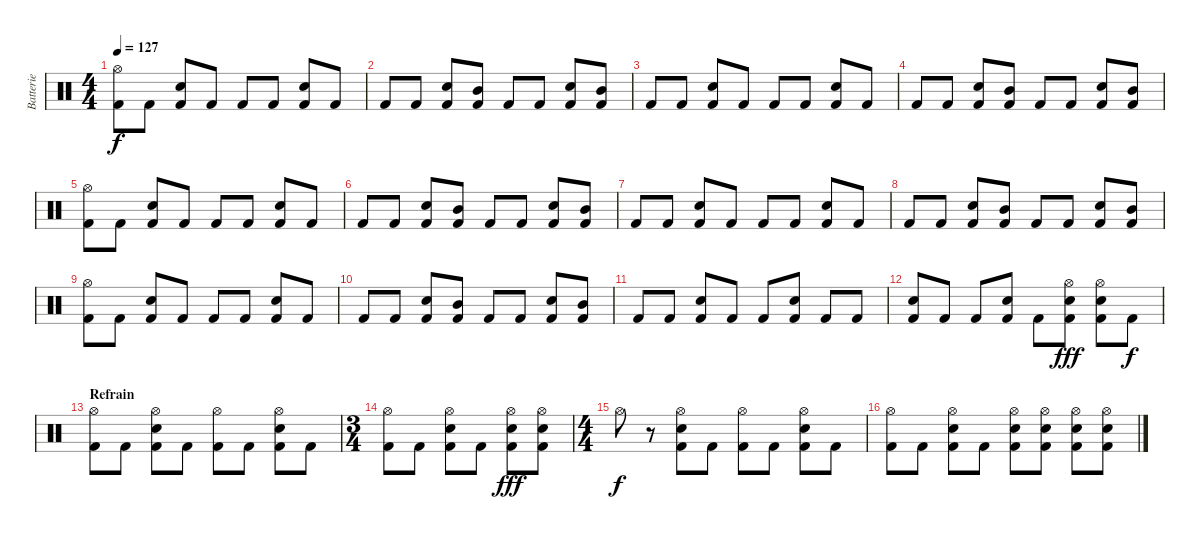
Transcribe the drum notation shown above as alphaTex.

\track ("Batterie" "Batterie") {instrument percussion}
\staff {score}
\articulation defaults
\ts (4 4)
\tempo 127
\clef neutral
\ks c
("Hi-Hat (open)" "Kick (hit) 2").8{dy f} "Kick (hit) 2".8 ("Electric Snare (hit)" "Kick (hit) 2").8 "Kick (hit) 2".8 "Kick (hit) 2".8 "Kick (hit) 2".8 ("Electric Snare (hit)" "Kick (hit) 2").8 "Kick (hit) 2".8 |
"Kick (hit) 2".8 "Kick (hit) 2".8 ("Electric Snare (hit)" "Kick (hit) 2").8 ("Mid Tom (hit)" "Kick (hit) 2").8 "Kick (hit) 2".8 "Kick (hit) 2".8 ("Electric Snare (hit)" "Kick (hit) 2").8 ("Mid Tom (hit)" "Kick (hit) 2").8 |
"Kick (hit) 2".8 "Kick (hit) 2".8 ("Electric Snare (hit)" "Kick (hit) 2").8 "Kick (hit) 2".8 "Kick (hit) 2".8 "Kick (hit) 2".8 ("Electric Snare (hit)" "Kick (hit) 2").8 "Kick (hit) 2".8 |
"Kick (hit) 2".8 "Kick (hit) 2".8 ("Electric Snare (hit)" "Kick (hit) 2").8 ("Mid Tom (hit)" "Kick (hit) 2").8 "Kick (hit) 2".8 "Kick (hit) 2".8 ("Electric Snare (hit)" "Kick (hit) 2").8 ("Mid Tom (hit)" "Kick (hit) 2").8 |
("Hi-Hat (open)" "Kick (hit) 2").8 "Kick (hit) 2".8 ("Electric Snare (hit)" "Kick (hit) 2").8 "Kick (hit) 2".8 "Kick (hit) 2".8 "Kick (hit) 2".8 ("Electric Snare (hit)" "Kick (hit) 2").8 "Kick (hit) 2".8 |
"Kick (hit) 2".8 "Kick (hit) 2".8 ("Electric Snare (hit)" "Kick (hit) 2").8 ("Mid Tom (hit)" "Kick (hit) 2").8 "Kick (hit) 2".8 "Kick (hit) 2".8 ("Electric Snare (hit)" "Kick (hit) 2").8 ("Mid Tom (hit)" "Kick (hit) 2").8 |
"Kick (hit) 2".8 "Kick (hit) 2".8 ("Electric Snare (hit)" "Kick (hit) 2").8 "Kick (hit) 2".8 "Kick (hit) 2".8 "Kick (hit) 2".8 ("Electric Snare (hit)" "Kick (hit) 2").8 "Kick (hit) 2".8 |
"Kick (hit) 2".8 "Kick (hit) 2".8 ("Electric Snare (hit)" "Kick (hit) 2").8 ("Mid Tom (hit)" "Kick (hit) 2").8 "Kick (hit) 2".8 "Kick (hit) 2".8 ("Electric Snare (hit)" "Kick (hit) 2").8 ("Mid Tom (hit)" "Kick (hit) 2").8 |
("Hi-Hat (open)" "Kick (hit) 2").8 "Kick (hit) 2".8 ("Electric Snare (hit)" "Kick (hit) 2").8 "Kick (hit) 2".8 "Kick (hit) 2".8 "Kick (hit) 2".8 ("Electric Snare (hit)" "Kick (hit) 2").8 "Kick (hit) 2".8 |
"Kick (hit) 2".8 "Kick (hit) 2".8 ("Electric Snare (hit)" "Kick (hit) 2").8 ("Mid Tom (hit)" "Kick (hit) 2").8 "Kick (hit) 2".8 "Kick (hit) 2".8 ("Electric Snare (hit)" "Kick (hit) 2").8 ("Mid Tom (hit)" "Kick (hit) 2").8 |
"Kick (hit) 2".8 "Kick (hit) 2".8 ("Electric Snare (hit)" "Kick (hit) 2").8 "Kick (hit) 2".8 "Kick (hit) 2".8 ("Electric Snare (hit)" "Kick (hit) 2").8 "Kick (hit) 2".8 "Kick (hit) 2".8 |
("Electric Snare (hit)" "Kick (hit) 2").8{volume 16} "Kick (hit) 2".8 "Kick (hit) 2".8 ("Electric Snare (hit)" "Kick (hit) 2").8 "Kick (hit) 2".8 ("Hi-Hat (open)" "Electric Snare (hit)" "Kick (hit) 2").8{dy fff} ("Hi-Hat (open)" "Electric Snare (hit)" "Kick (hit) 2").8 "Kick (hit) 2".8{dy f} |
\section ("" "Refrain")
("Hi-Hat (open)" "Kick (hit) 2").8 "Kick (hit) 2".8 ("Hi-Hat (open)" "Electric Snare (hit)" "Kick (hit) 2").8 "Kick (hit) 2".8 ("Hi-Hat (open)" "Kick (hit) 2").8 "Kick (hit) 2".8 ("Hi-Hat (open)" "Electric Snare (hit)" "Kick (hit) 2").8 "Kick (hit) 2".8 |
\ts (3 4)
("Hi-Hat (open)" "Kick (hit) 2").8 "Kick (hit) 2".8 ("Hi-Hat (open)" "Electric Snare (hit)" "Kick (hit) 2").8 "Kick (hit) 2".8 ("Hi-Hat (open)" "Electric Snare (hit)" "Kick (hit) 2").8{dy fff} ("Hi-Hat (open)" "Electric Snare (hit)" "Kick (hit) 2").8 |
\ts (4 4)
"Hi-Hat (open)".8{dy f} r.8 ("Hi-Hat (open)" "Electric Snare (hit)" "Kick (hit) 2").8 "Kick (hit) 2".8 ("Hi-Hat (open)" "Kick (hit) 2").8 "Kick (hit) 2".8 ("Hi-Hat (open)" "Electric Snare (hit)" "Kick (hit) 2").8 "Kick (hit) 2".8 |
("Hi-Hat (open)" "Kick (hit) 2").8 "Kick (hit) 2".8 ("Hi-Hat (open)" "Electric Snare (hit)" "Kick (hit) 2").8 "Kick (hit) 2".8 ("Hi-Hat (open)" "Electric Snare (hit)" "Kick (hit) 2").8 ("Hi-Hat (open)" "Electric Snare (hit)" "Kick (hit) 2").8 ("Hi-Hat (open)" "Electric Snare (hit)" "Kick (hit) 2").8 ("Hi-Hat (open)" "Electric Snare (hit)" "Kick (hit) 2").8
